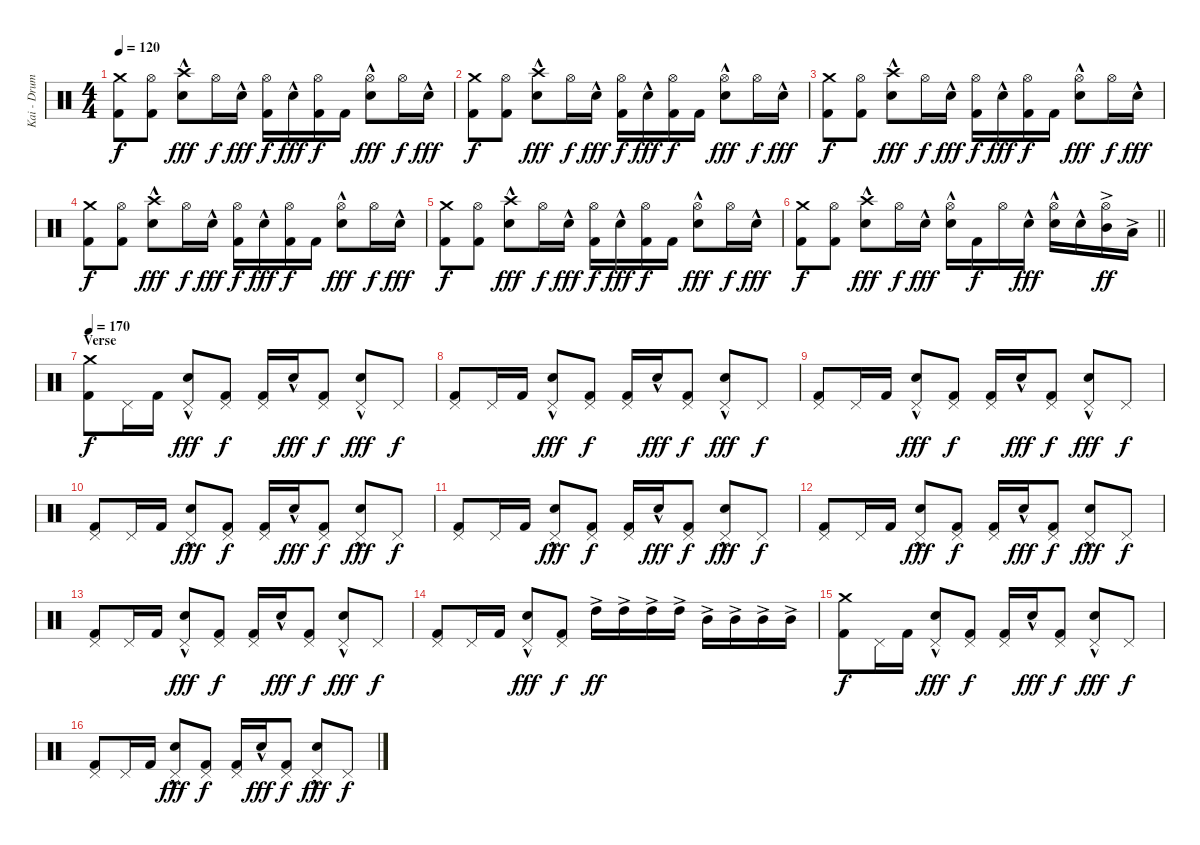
\track ("Kai - Drums" "Kai - Drum") {instrument percussion}
\staff {score}
\articulation defaults
\ts (4 4)
\tempo 120
\clef neutral
\ks c
("Crash medium (hit)" "Kick (hit) 2").8{dy f} ("Hi-Hat (open)" "Kick (hit) 2").8 ("Crash high (hit)" "Electric Snare (hit)"{hac}).8{dy fff} "Hi-Hat (open)".16{dy f} "Electric Snare (hit)"{hac}.16{dy fff} ("Hi-Hat (open)" "Kick (hit) 2").16{dy f} "Electric Snare (hit)"{hac}.16{dy fff} ("Hi-Hat (open)" "Kick (hit) 2").16{dy f} "Kick (hit) 2".16 ("Hi-Hat (open)" "Electric Snare (hit)"{hac}).8{dy fff} "Hi-Hat (open)".16{dy f} "Electric Snare (hit)"{hac}.16{dy fff} |
("Crash medium (hit)" "Kick (hit) 2").8{dy f} ("Hi-Hat (open)" "Kick (hit) 2").8 ("Crash high (hit)" "Electric Snare (hit)"{hac}).8{dy fff} "Hi-Hat (open)".16{dy f} "Electric Snare (hit)"{hac}.16{dy fff} ("Hi-Hat (open)" "Kick (hit) 2").16{dy f} "Electric Snare (hit)"{hac}.16{dy fff} ("Hi-Hat (open)" "Kick (hit) 2").16{dy f} "Kick (hit) 2".16 ("Hi-Hat (open)" "Electric Snare (hit)"{hac}).8{dy fff} "Hi-Hat (open)".16{dy f} "Electric Snare (hit)"{hac}.16{dy fff} |
("Crash medium (hit)" "Kick (hit) 2").8{dy f} ("Hi-Hat (open)" "Kick (hit) 2").8 ("Crash high (hit)" "Electric Snare (hit)"{hac}).8{dy fff} "Hi-Hat (open)".16{dy f} "Electric Snare (hit)"{hac}.16{dy fff} ("Hi-Hat (open)" "Kick (hit) 2").16{dy f} "Electric Snare (hit)"{hac}.16{dy fff} ("Hi-Hat (open)" "Kick (hit) 2").16{dy f} "Kick (hit) 2".16 ("Hi-Hat (open)" "Electric Snare (hit)"{hac}).8{dy fff} "Hi-Hat (open)".16{dy f} "Electric Snare (hit)"{hac}.16{dy fff} |
("Crash medium (hit)" "Kick (hit) 2").8{dy f} ("Hi-Hat (open)" "Kick (hit) 2").8 ("Crash high (hit)" "Electric Snare (hit)"{hac}).8{dy fff} "Hi-Hat (open)".16{dy f} "Electric Snare (hit)"{hac}.16{dy fff} ("Hi-Hat (open)" "Kick (hit) 2").16{dy f} "Electric Snare (hit)"{hac}.16{dy fff} ("Hi-Hat (open)" "Kick (hit) 2").16{dy f} "Kick (hit) 2".16 ("Hi-Hat (open)" "Electric Snare (hit)"{hac}).8{dy fff} "Hi-Hat (open)".16{dy f} "Electric Snare (hit)"{hac}.16{dy fff} |
("Crash medium (hit)" "Kick (hit) 2").8{dy f} ("Hi-Hat (open)" "Kick (hit) 2").8 ("Crash high (hit)" "Electric Snare (hit)"{hac}).8{dy fff} "Hi-Hat (open)".16{dy f} "Electric Snare (hit)"{hac}.16{dy fff} ("Hi-Hat (open)" "Kick (hit) 2").16{dy f} "Electric Snare (hit)"{hac}.16{dy fff} ("Hi-Hat (open)" "Kick (hit) 2").16{dy f} "Kick (hit) 2".16 ("Hi-Hat (open)" "Electric Snare (hit)"{hac}).8{dy fff} "Hi-Hat (open)".16{dy f} "Electric Snare (hit)"{hac}.16{dy fff} |
\barLineRight lightlight
("Crash medium (hit)" "Kick (hit) 2").8{dy f} ("Hi-Hat (open)" "Kick (hit) 2").8 ("Crash high (hit)" "Electric Snare (hit)"{hac}).8{dy fff} "Hi-Hat (open)".16{dy f} "Electric Snare (hit)"{hac}.16{dy fff} ("Hi-Hat (open)" "Electric Snare (hit)"{hac}).16 "Kick (hit) 2".16{dy f} "Hi-Hat (open)".16 "Electric Snare (hit)"{hac}.16{dy fff} ("Hi-Hat (open)" "Electric Snare (hit)"{hac}).16 "Electric Snare (hit)"{hac}.16 ("Hi-Hat (open)" "Mid Tom (hit)"{ac}).16{dy ff} "Low Tom (hit)"{ac}.16 |
\section ("" "Verse")
\tempo 170
("Crash medium (hit)" "Kick (hit) 2").8{dy f} "Pedal Hi-Hat (hit)".16 "Kick (hit) 2".16 ("Pedal Hi-Hat (hit)" "Electric Snare (hit)"{hac}).8{dy fff} ("Pedal Hi-Hat (hit)" "Kick (hit) 2").8{dy f} ("Pedal Hi-Hat (hit)" "Kick (hit) 2").16 "Electric Snare (hit)"{hac}.16{dy fff} ("Pedal Hi-Hat (hit)" "Kick (hit) 2").8{dy f} ("Pedal Hi-Hat (hit)" "Electric Snare (hit)"{hac}).8{dy fff} "Pedal Hi-Hat (hit)".8{dy f} |
("Pedal Hi-Hat (hit)" "Kick (hit) 2").8 "Pedal Hi-Hat (hit)".16 "Kick (hit) 2".16 ("Pedal Hi-Hat (hit)" "Electric Snare (hit)"{hac}).8{dy fff} ("Pedal Hi-Hat (hit)" "Kick (hit) 2").8{dy f} ("Pedal Hi-Hat (hit)" "Kick (hit) 2").16 "Electric Snare (hit)"{hac}.16{dy fff} ("Pedal Hi-Hat (hit)" "Kick (hit) 2").8{dy f} ("Pedal Hi-Hat (hit)" "Electric Snare (hit)"{hac}).8{dy fff} "Pedal Hi-Hat (hit)".8{dy f} |
("Pedal Hi-Hat (hit)" "Kick (hit) 2").8 "Pedal Hi-Hat (hit)".16 "Kick (hit) 2".16 ("Pedal Hi-Hat (hit)" "Electric Snare (hit)"{hac}).8{dy fff} ("Pedal Hi-Hat (hit)" "Kick (hit) 2").8{dy f} ("Pedal Hi-Hat (hit)" "Kick (hit) 2").16 "Electric Snare (hit)"{hac}.16{dy fff} ("Pedal Hi-Hat (hit)" "Kick (hit) 2").8{dy f} ("Pedal Hi-Hat (hit)" "Electric Snare (hit)"{hac}).8{dy fff} "Pedal Hi-Hat (hit)".8{dy f} |
("Pedal Hi-Hat (hit)" "Kick (hit) 2").8 "Pedal Hi-Hat (hit)".16 "Kick (hit) 2".16 ("Pedal Hi-Hat (hit)" "Electric Snare (hit)"{hac}).8{dy fff} ("Pedal Hi-Hat (hit)" "Kick (hit) 2").8{dy f} ("Pedal Hi-Hat (hit)" "Kick (hit) 2").16 "Electric Snare (hit)"{hac}.16{dy fff} ("Pedal Hi-Hat (hit)" "Kick (hit) 2").8{dy f} ("Pedal Hi-Hat (hit)" "Electric Snare (hit)"{hac}).8{dy fff} "Pedal Hi-Hat (hit)".8{dy f} |
("Pedal Hi-Hat (hit)" "Kick (hit) 2").8 "Pedal Hi-Hat (hit)".16 "Kick (hit) 2".16 ("Pedal Hi-Hat (hit)" "Electric Snare (hit)"{hac}).8{dy fff} ("Pedal Hi-Hat (hit)" "Kick (hit) 2").8{dy f} ("Pedal Hi-Hat (hit)" "Kick (hit) 2").16 "Electric Snare (hit)"{hac}.16{dy fff} ("Pedal Hi-Hat (hit)" "Kick (hit) 2").8{dy f} ("Pedal Hi-Hat (hit)" "Electric Snare (hit)"{hac}).8{dy fff} "Pedal Hi-Hat (hit)".8{dy f} |
("Pedal Hi-Hat (hit)" "Kick (hit) 2").8 "Pedal Hi-Hat (hit)".16 "Kick (hit) 2".16 ("Pedal Hi-Hat (hit)" "Electric Snare (hit)"{hac}).8{dy fff} ("Pedal Hi-Hat (hit)" "Kick (hit) 2").8{dy f} ("Pedal Hi-Hat (hit)" "Kick (hit) 2").16 "Electric Snare (hit)"{hac}.16{dy fff} ("Pedal Hi-Hat (hit)" "Kick (hit) 2").8{dy f} ("Pedal Hi-Hat (hit)" "Electric Snare (hit)"{hac}).8{dy fff} "Pedal Hi-Hat (hit)".8{dy f} |
("Pedal Hi-Hat (hit)" "Kick (hit) 2").8 "Pedal Hi-Hat (hit)".16 "Kick (hit) 2".16 ("Pedal Hi-Hat (hit)" "Electric Snare (hit)"{hac}).8{dy fff} ("Pedal Hi-Hat (hit)" "Kick (hit) 2").8{dy f} ("Pedal Hi-Hat (hit)" "Kick (hit) 2").16 "Electric Snare (hit)"{hac}.16{dy fff} ("Pedal Hi-Hat (hit)" "Kick (hit) 2").8{dy f} ("Pedal Hi-Hat (hit)" "Electric Snare (hit)"{hac}).8{dy fff} "Pedal Hi-Hat (hit)".8{dy f} |
("Pedal Hi-Hat (hit)" "Kick (hit) 2").8 "Pedal Hi-Hat (hit)".16 "Kick (hit) 2".16 ("Pedal Hi-Hat (hit)" "Electric Snare (hit)"{hac}).8{dy fff} ("Pedal Hi-Hat (hit)" "Kick (hit) 2").8{dy f} "High Tom (hit)"{ac}.16{dy ff} "High Tom (hit)"{ac}.16 "High Tom (hit)"{ac}.16 "High Tom (hit)"{ac}.16 "Mid Tom (hit)"{ac}.16 "Mid Tom (hit)"{ac}.16 "Mid Tom (hit)"{ac}.16 "Mid Tom (hit)"{ac}.16 |
("Crash medium (hit)" "Kick (hit) 2").8{dy f} "Pedal Hi-Hat (hit)".16 "Kick (hit) 2".16 ("Pedal Hi-Hat (hit)" "Electric Snare (hit)"{hac}).8{dy fff} ("Pedal Hi-Hat (hit)" "Kick (hit) 2").8{dy f} ("Pedal Hi-Hat (hit)" "Kick (hit) 2").16 "Electric Snare (hit)"{hac}.16{dy fff} ("Pedal Hi-Hat (hit)" "Kick (hit) 2").8{dy f} ("Pedal Hi-Hat (hit)" "Electric Snare (hit)"{hac}).8{dy fff} "Pedal Hi-Hat (hit)".8{dy f} |
("Pedal Hi-Hat (hit)" "Kick (hit) 2").8 "Pedal Hi-Hat (hit)".16 "Kick (hit) 2".16 ("Pedal Hi-Hat (hit)" "Electric Snare (hit)"{hac}).8{dy fff} ("Pedal Hi-Hat (hit)" "Kick (hit) 2").8{dy f} ("Pedal Hi-Hat (hit)" "Kick (hit) 2").16 "Electric Snare (hit)"{hac}.16{dy fff} ("Pedal Hi-Hat (hit)" "Kick (hit) 2").8{dy f} ("Pedal Hi-Hat (hit)" "Electric Snare (hit)"{hac}).8{dy fff} "Pedal Hi-Hat (hit)".8{dy f}
